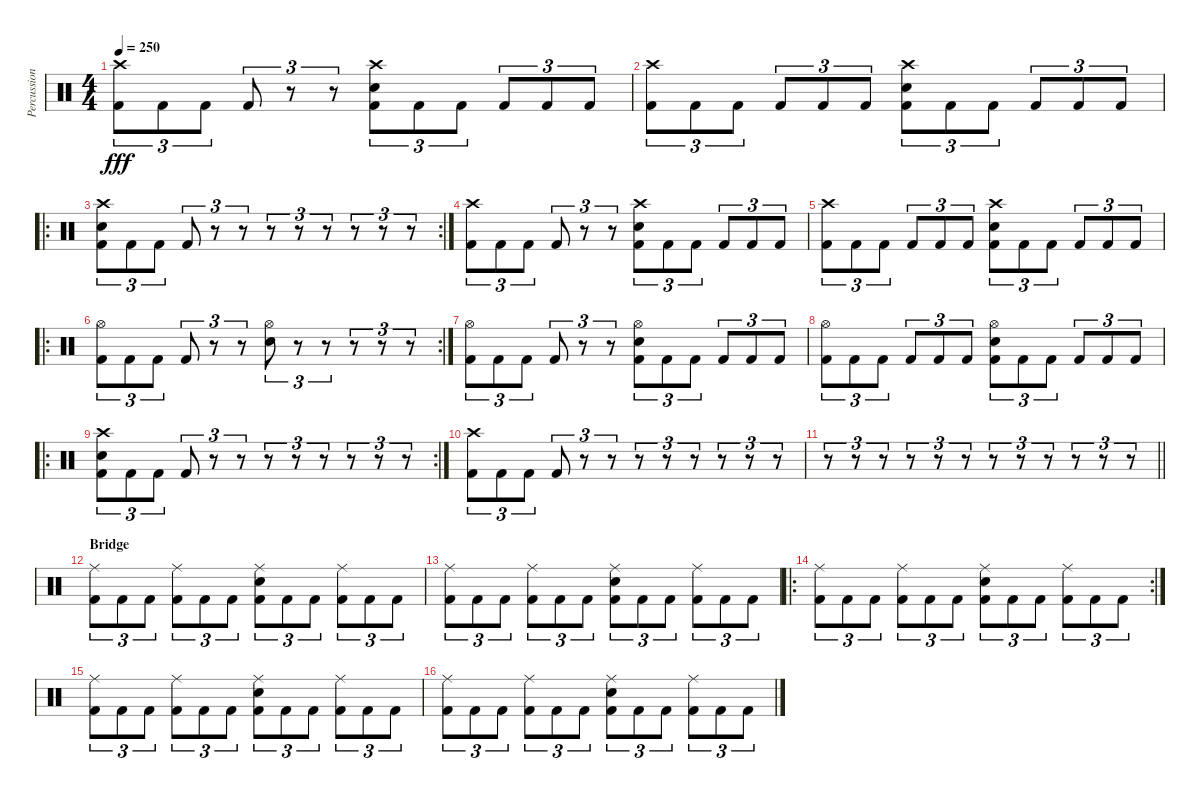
\track ("Percussion" "Percussion") {instrument percussion}
\staff {score}
\articulation defaults
\ts (4 4)
\tempo 250
\clef neutral
\ks c
("Crash high (hit)" "Kick (hit) 2").8{tu (3 2) dy fff} "Kick (hit) 2".8{tu (3 2)} "Kick (hit) 2".8{tu (3 2)} "Kick (hit) 2".8{tu (3 2)} r.8{tu (3 2)} r.8{tu (3 2)} ("Crash high (hit)" "Electric Snare (hit)" "Kick (hit) 2").8{tu (3 2)} "Kick (hit) 2".8{tu (3 2)} "Kick (hit) 2".8{tu (3 2)} "Kick (hit) 2".8{tu (3 2)} "Kick (hit) 2".8{tu (3 2)} "Kick (hit) 2".8{tu (3 2)} |
("Crash high (hit)" "Kick (hit) 2").8{tu (3 2)} "Kick (hit) 2".8{tu (3 2)} "Kick (hit) 2".8{tu (3 2)} "Kick (hit) 2".8{tu (3 2)} "Kick (hit) 2".8{tu (3 2)} "Kick (hit) 2".8{tu (3 2)} ("Crash high (hit)" "Electric Snare (hit)" "Kick (hit) 2").8{tu (3 2)} "Kick (hit) 2".8{tu (3 2)} "Kick (hit) 2".8{tu (3 2)} "Kick (hit) 2".8{tu (3 2)} "Kick (hit) 2".8{tu (3 2)} "Kick (hit) 2".8{tu (3 2)} |
\ro
\rc 2
("Crash high (hit)" "Electric Snare (hit)" "Kick (hit) 2").8{tu (3 2)} "Kick (hit) 2".8{tu (3 2)} "Kick (hit) 2".8{tu (3 2)} "Kick (hit) 2".8{tu (3 2)} r.8{tu (3 2)} r.8{tu (3 2)} r.8{tu (3 2)} r.8{tu (3 2)} r.8{tu (3 2)} r.8{tu (3 2)} r.8{tu (3 2)} r.8{tu (3 2)} |
("Crash high (hit)" "Kick (hit) 2").8{tu (3 2)} "Kick (hit) 2".8{tu (3 2)} "Kick (hit) 2".8{tu (3 2)} "Kick (hit) 2".8{tu (3 2)} r.8{tu (3 2)} r.8{tu (3 2)} ("Crash high (hit)" "Electric Snare (hit)" "Kick (hit) 2").8{tu (3 2)} "Kick (hit) 2".8{tu (3 2)} "Kick (hit) 2".8{tu (3 2)} "Kick (hit) 2".8{tu (3 2)} "Kick (hit) 2".8{tu (3 2)} "Kick (hit) 2".8{tu (3 2)} |
("Crash high (hit)" "Kick (hit) 2").8{tu (3 2)} "Kick (hit) 2".8{tu (3 2)} "Kick (hit) 2".8{tu (3 2)} "Kick (hit) 2".8{tu (3 2)} "Kick (hit) 2".8{tu (3 2)} "Kick (hit) 2".8{tu (3 2)} ("Crash high (hit)" "Electric Snare (hit)" "Kick (hit) 2").8{tu (3 2)} "Kick (hit) 2".8{tu (3 2)} "Kick (hit) 2".8{tu (3 2)} "Kick (hit) 2".8{tu (3 2)} "Kick (hit) 2".8{tu (3 2)} "Kick (hit) 2".8{tu (3 2)} |
\ro
\rc 2
("Hi-Hat (open)" "Kick (hit) 2").8{tu (3 2)} "Kick (hit) 2".8{tu (3 2)} "Kick (hit) 2".8{tu (3 2)} "Kick (hit) 2".8{tu (3 2)} r.8{tu (3 2)} r.8{tu (3 2)} ("Hi-Hat (open)" "Electric Snare (hit)").8{tu (3 2)} r.8{tu (3 2)} r.8{tu (3 2)} r.8{tu (3 2)} r.8{tu (3 2)} r.8{tu (3 2)} |
("Hi-Hat (open)" "Kick (hit) 2").8{tu (3 2)} "Kick (hit) 2".8{tu (3 2)} "Kick (hit) 2".8{tu (3 2)} "Kick (hit) 2".8{tu (3 2)} r.8{tu (3 2)} r.8{tu (3 2)} ("Hi-Hat (open)" "Electric Snare (hit)" "Kick (hit) 2").8{tu (3 2)} "Kick (hit) 2".8{tu (3 2)} "Kick (hit) 2".8{tu (3 2)} "Kick (hit) 2".8{tu (3 2)} "Kick (hit) 2".8{tu (3 2)} "Kick (hit) 2".8{tu (3 2)} |
("Hi-Hat (open)" "Kick (hit) 2").8{tu (3 2)} "Kick (hit) 2".8{tu (3 2)} "Kick (hit) 2".8{tu (3 2)} "Kick (hit) 2".8{tu (3 2)} "Kick (hit) 2".8{tu (3 2)} "Kick (hit) 2".8{tu (3 2)} ("Hi-Hat (open)" "Electric Snare (hit)" "Kick (hit) 2").8{tu (3 2)} "Kick (hit) 2".8{tu (3 2)} "Kick (hit) 2".8{tu (3 2)} "Kick (hit) 2".8{tu (3 2)} "Kick (hit) 2".8{tu (3 2)} "Kick (hit) 2".8{tu (3 2)} |
\ro
\rc 2
("Crash high (hit)" "Electric Snare (hit)" "Kick (hit) 2").8{tu (3 2)} "Kick (hit) 2".8{tu (3 2)} "Kick (hit) 2".8{tu (3 2)} "Kick (hit) 2".8{tu (3 2)} r.8{tu (3 2)} r.8{tu (3 2)} r.8{tu (3 2)} r.8{tu (3 2)} r.8{tu (3 2)} r.8{tu (3 2)} r.8{tu (3 2)} r.8{tu (3 2)} |
("Crash high (hit)" "Kick (hit) 2").8{tu (3 2)} "Kick (hit) 2".8{tu (3 2)} "Kick (hit) 2".8{tu (3 2)} "Kick (hit) 2".8{tu (3 2)} r.8{tu (3 2)} r.8{tu (3 2)} r.8{tu (3 2)} r.8{tu (3 2)} r.8{tu (3 2)} r.8{tu (3 2)} r.8{tu (3 2)} r.8{tu (3 2)} |
\barLineRight lightlight
r.8{tu (3 2)} r.8{tu (3 2)} r.8{tu (3 2)} r.8{tu (3 2)} r.8{tu (3 2)} r.8{tu (3 2)} r.8{tu (3 2)} r.8{tu (3 2)} r.8{tu (3 2)} r.8{tu (3 2)} r.8{tu (3 2)} r.8{tu (3 2)} |
\section ("" "Bridge")
("Ride (middle)" "Kick (hit) 2").8{tu (3 2)} "Kick (hit) 2".8{tu (3 2)} "Kick (hit) 2".8{tu (3 2)} ("Ride (middle)" "Kick (hit) 2").8{tu (3 2)} "Kick (hit) 2".8{tu (3 2)} "Kick (hit) 2".8{tu (3 2)} ("Ride (middle)" "Electric Snare (hit)" "Kick (hit) 2").8{tu (3 2)} "Kick (hit) 2".8{tu (3 2)} "Kick (hit) 2".8{tu (3 2)} ("Ride (middle)" "Kick (hit) 2").8{tu (3 2)} "Kick (hit) 2".8{tu (3 2)} "Kick (hit) 2".8{tu (3 2)} |
("Ride (middle)" "Kick (hit) 2").8{tu (3 2)} "Kick (hit) 2".8{tu (3 2)} "Kick (hit) 2".8{tu (3 2)} ("Ride (middle)" "Kick (hit) 2").8{tu (3 2)} "Kick (hit) 2".8{tu (3 2)} "Kick (hit) 2".8{tu (3 2)} ("Ride (middle)" "Electric Snare (hit)" "Kick (hit) 2").8{tu (3 2)} "Kick (hit) 2".8{tu (3 2)} "Kick (hit) 2".8{tu (3 2)} ("Ride (middle)" "Kick (hit) 2").8{tu (3 2)} "Kick (hit) 2".8{tu (3 2)} "Kick (hit) 2".8{tu (3 2)} |
\ro
\rc 2
("Ride (middle)" "Kick (hit) 2").8{tu (3 2)} "Kick (hit) 2".8{tu (3 2)} "Kick (hit) 2".8{tu (3 2)} ("Ride (middle)" "Kick (hit) 2").8{tu (3 2)} "Kick (hit) 2".8{tu (3 2)} "Kick (hit) 2".8{tu (3 2)} ("Ride (middle)" "Electric Snare (hit)" "Kick (hit) 2").8{tu (3 2)} "Kick (hit) 2".8{tu (3 2)} "Kick (hit) 2".8{tu (3 2)} ("Ride (middle)" "Kick (hit) 2").8{tu (3 2)} "Kick (hit) 2".8{tu (3 2)} "Kick (hit) 2".8{tu (3 2)} |
("Ride (middle)" "Kick (hit) 2").8{tu (3 2)} "Kick (hit) 2".8{tu (3 2)} "Kick (hit) 2".8{tu (3 2)} ("Ride (middle)" "Kick (hit) 2").8{tu (3 2)} "Kick (hit) 2".8{tu (3 2)} "Kick (hit) 2".8{tu (3 2)} ("Ride (middle)" "Electric Snare (hit)" "Kick (hit) 2").8{tu (3 2)} "Kick (hit) 2".8{tu (3 2)} "Kick (hit) 2".8{tu (3 2)} ("Ride (middle)" "Kick (hit) 2").8{tu (3 2)} "Kick (hit) 2".8{tu (3 2)} "Kick (hit) 2".8{tu (3 2)} |
("Ride (middle)" "Kick (hit) 2").8{tu (3 2)} "Kick (hit) 2".8{tu (3 2)} "Kick (hit) 2".8{tu (3 2)} ("Ride (middle)" "Kick (hit) 2").8{tu (3 2)} "Kick (hit) 2".8{tu (3 2)} "Kick (hit) 2".8{tu (3 2)} ("Ride (middle)" "Electric Snare (hit)" "Kick (hit) 2").8{tu (3 2)} "Kick (hit) 2".8{tu (3 2)} "Kick (hit) 2".8{tu (3 2)} ("Ride (middle)" "Kick (hit) 2").8{tu (3 2)} "Kick (hit) 2".8{tu (3 2)} "Kick (hit) 2".8{tu (3 2)}
